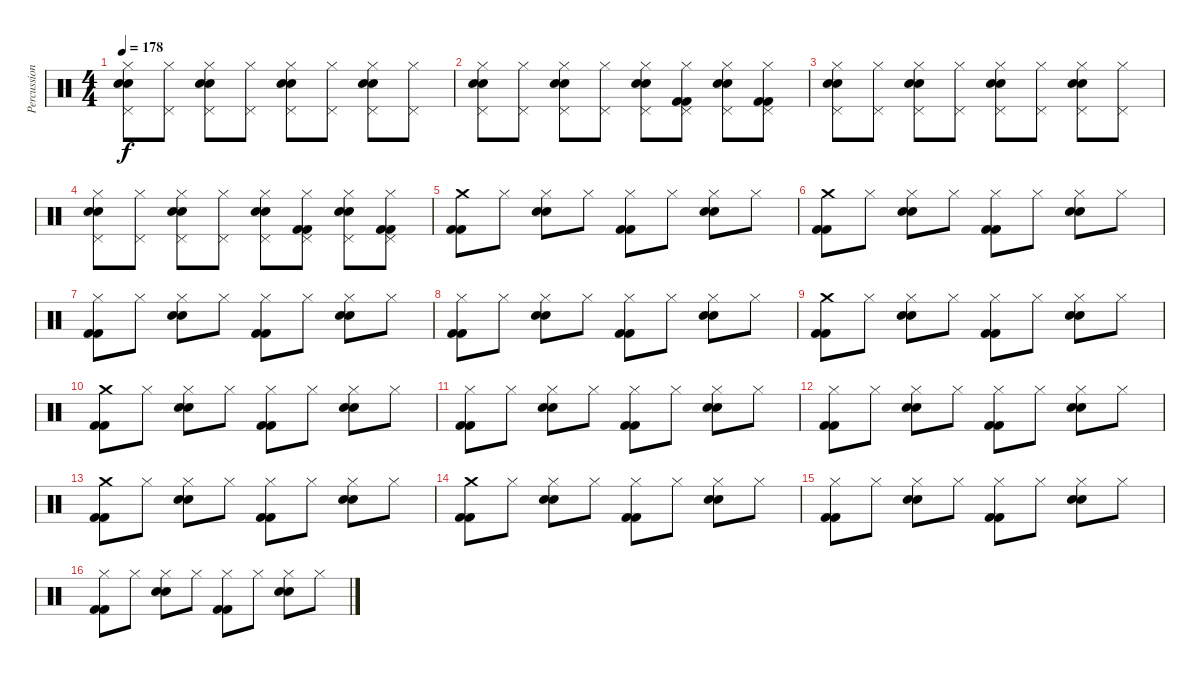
\track ("Percussion" "Percussion") {instrument percussion}
\staff {score}
\articulation defaults
\ts (4 4)
\tempo 178
\clef neutral
\ks c
("Hi-Hat (closed)" "Pedal Hi-Hat (hit)" "Snare (hit) 2" "Snare (hit) 2").8{dy f} ("Hi-Hat (closed)" "Pedal Hi-Hat (hit)").8 ("Hi-Hat (closed)" "Pedal Hi-Hat (hit)" "Snare (hit) 2" "Snare (hit) 2").8 ("Hi-Hat (closed)" "Pedal Hi-Hat (hit)").8 ("Hi-Hat (closed)" "Pedal Hi-Hat (hit)" "Snare (hit) 2" "Snare (hit) 2").8 ("Hi-Hat (closed)" "Pedal Hi-Hat (hit)").8 ("Hi-Hat (closed)" "Pedal Hi-Hat (hit)" "Snare (hit) 2" "Snare (hit) 2").8 ("Hi-Hat (closed)" "Pedal Hi-Hat (hit)").8 |
("Hi-Hat (closed)" "Pedal Hi-Hat (hit)" "Snare (hit) 2" "Snare (hit) 2").8 ("Hi-Hat (closed)" "Pedal Hi-Hat (hit)").8 ("Hi-Hat (closed)" "Pedal Hi-Hat (hit)" "Snare (hit) 2" "Snare (hit) 2").8 ("Hi-Hat (closed)" "Pedal Hi-Hat (hit)").8 ("Hi-Hat (closed)" "Pedal Hi-Hat (hit)" "Snare (hit) 2" "Snare (hit) 2").8 ("Hi-Hat (closed)" "Pedal Hi-Hat (hit)" "Kick (hit) 2" "Kick (hit) 2").8 ("Hi-Hat (closed)" "Pedal Hi-Hat (hit)" "Snare (hit) 2" "Snare (hit) 2").8 ("Hi-Hat (closed)" "Pedal Hi-Hat (hit)" "Kick (hit) 2" "Kick (hit) 2").8 |
("Hi-Hat (closed)" "Pedal Hi-Hat (hit)" "Snare (hit) 2" "Snare (hit) 2").8 ("Hi-Hat (closed)" "Pedal Hi-Hat (hit)").8 ("Hi-Hat (closed)" "Pedal Hi-Hat (hit)" "Snare (hit) 2" "Snare (hit) 2").8 ("Hi-Hat (closed)" "Pedal Hi-Hat (hit)").8 ("Hi-Hat (closed)" "Pedal Hi-Hat (hit)" "Snare (hit) 2" "Snare (hit) 2").8 ("Hi-Hat (closed)" "Pedal Hi-Hat (hit)").8 ("Hi-Hat (closed)" "Pedal Hi-Hat (hit)" "Snare (hit) 2" "Snare (hit) 2").8 ("Hi-Hat (closed)" "Pedal Hi-Hat (hit)").8 |
("Hi-Hat (closed)" "Pedal Hi-Hat (hit)" "Snare (hit) 2" "Snare (hit) 2").8 ("Hi-Hat (closed)" "Pedal Hi-Hat (hit)").8 ("Hi-Hat (closed)" "Pedal Hi-Hat (hit)" "Snare (hit) 2" "Snare (hit) 2").8 ("Hi-Hat (closed)" "Pedal Hi-Hat (hit)").8 ("Hi-Hat (closed)" "Pedal Hi-Hat (hit)" "Snare (hit) 2" "Snare (hit) 2").8 ("Hi-Hat (closed)" "Pedal Hi-Hat (hit)" "Kick (hit) 2" "Kick (hit) 2").8 ("Hi-Hat (closed)" "Pedal Hi-Hat (hit)" "Snare (hit) 2" "Snare (hit) 2").8 ("Hi-Hat (closed)" "Pedal Hi-Hat (hit)" "Kick (hit) 2" "Kick (hit) 2").8 |
("Crash medium (hit)" "Kick (hit) 2" "Kick (hit) 2").8 "Hi-Hat (closed)".8 ("Hi-Hat (closed)" "Snare (hit) 2" "Snare (hit) 2").8 "Hi-Hat (closed)".8 ("Hi-Hat (closed)" "Kick (hit) 2" "Kick (hit) 2").8 "Hi-Hat (closed)".8 ("Hi-Hat (closed)" "Snare (hit) 2" "Snare (hit) 2").8 "Hi-Hat (closed)".8 |
("Crash medium (hit)" "Kick (hit) 2" "Kick (hit) 2").8 "Hi-Hat (closed)".8 ("Hi-Hat (closed)" "Snare (hit) 2" "Snare (hit) 2").8 "Hi-Hat (closed)".8 ("Hi-Hat (closed)" "Kick (hit) 2" "Kick (hit) 2").8 "Hi-Hat (closed)".8 ("Hi-Hat (closed)" "Snare (hit) 2" "Snare (hit) 2").8 "Hi-Hat (closed)".8 |
("Hi-Hat (closed)" "Kick (hit) 2" "Kick (hit) 2").8 "Hi-Hat (closed)".8 ("Hi-Hat (closed)" "Snare (hit) 2" "Snare (hit) 2").8 "Hi-Hat (closed)".8 ("Hi-Hat (closed)" "Kick (hit) 2" "Kick (hit) 2").8 "Hi-Hat (closed)".8 ("Hi-Hat (closed)" "Snare (hit) 2" "Snare (hit) 2").8 "Hi-Hat (closed)".8 |
("Hi-Hat (closed)" "Kick (hit) 2" "Kick (hit) 2").8 "Hi-Hat (closed)".8 ("Hi-Hat (closed)" "Snare (hit) 2" "Snare (hit) 2").8 "Hi-Hat (closed)".8 ("Hi-Hat (closed)" "Kick (hit) 2" "Kick (hit) 2").8 "Hi-Hat (closed)".8 ("Hi-Hat (closed)" "Snare (hit) 2" "Snare (hit) 2").8 "Hi-Hat (closed)".8 |
("Crash medium (hit)" "Kick (hit) 2" "Kick (hit) 2").8 "Hi-Hat (closed)".8 ("Hi-Hat (closed)" "Snare (hit) 2" "Snare (hit) 2").8 "Hi-Hat (closed)".8 ("Hi-Hat (closed)" "Kick (hit) 2" "Kick (hit) 2").8 "Hi-Hat (closed)".8 ("Hi-Hat (closed)" "Snare (hit) 2" "Snare (hit) 2").8 "Hi-Hat (closed)".8 |
("Crash medium (hit)" "Kick (hit) 2" "Kick (hit) 2").8 "Hi-Hat (closed)".8 ("Hi-Hat (closed)" "Snare (hit) 2" "Snare (hit) 2").8 "Hi-Hat (closed)".8 ("Hi-Hat (closed)" "Kick (hit) 2" "Kick (hit) 2").8 "Hi-Hat (closed)".8 ("Hi-Hat (closed)" "Snare (hit) 2" "Snare (hit) 2").8 "Hi-Hat (closed)".8 |
("Hi-Hat (closed)" "Kick (hit) 2" "Kick (hit) 2").8 "Hi-Hat (closed)".8 ("Hi-Hat (closed)" "Snare (hit) 2" "Snare (hit) 2").8 "Hi-Hat (closed)".8 ("Hi-Hat (closed)" "Kick (hit) 2" "Kick (hit) 2").8 "Hi-Hat (closed)".8 ("Hi-Hat (closed)" "Snare (hit) 2" "Snare (hit) 2").8 "Hi-Hat (closed)".8 |
("Hi-Hat (closed)" "Kick (hit) 2" "Kick (hit) 2").8 "Hi-Hat (closed)".8 ("Hi-Hat (closed)" "Snare (hit) 2" "Snare (hit) 2").8 "Hi-Hat (closed)".8 ("Hi-Hat (closed)" "Kick (hit) 2" "Kick (hit) 2").8 "Hi-Hat (closed)".8 ("Hi-Hat (closed)" "Snare (hit) 2" "Snare (hit) 2").8 "Hi-Hat (closed)".8 |
("Crash medium (hit)" "Kick (hit) 2" "Kick (hit) 2").8 "Hi-Hat (closed)".8 ("Hi-Hat (closed)" "Snare (hit) 2" "Snare (hit) 2").8 "Hi-Hat (closed)".8 ("Hi-Hat (closed)" "Kick (hit) 2" "Kick (hit) 2").8 "Hi-Hat (closed)".8 ("Hi-Hat (closed)" "Snare (hit) 2" "Snare (hit) 2").8 "Hi-Hat (closed)".8 |
("Crash medium (hit)" "Kick (hit) 2" "Kick (hit) 2").8 "Hi-Hat (closed)".8 ("Hi-Hat (closed)" "Snare (hit) 2" "Snare (hit) 2").8 "Hi-Hat (closed)".8 ("Hi-Hat (closed)" "Kick (hit) 2" "Kick (hit) 2").8 "Hi-Hat (closed)".8 ("Hi-Hat (closed)" "Snare (hit) 2" "Snare (hit) 2").8 "Hi-Hat (closed)".8 |
("Hi-Hat (closed)" "Kick (hit) 2" "Kick (hit) 2").8 "Hi-Hat (closed)".8 ("Hi-Hat (closed)" "Snare (hit) 2" "Snare (hit) 2").8 "Hi-Hat (closed)".8 ("Hi-Hat (closed)" "Kick (hit) 2" "Kick (hit) 2").8 "Hi-Hat (closed)".8 ("Hi-Hat (closed)" "Snare (hit) 2" "Snare (hit) 2").8 "Hi-Hat (closed)".8 |
("Hi-Hat (closed)" "Kick (hit) 2" "Kick (hit) 2").8 "Hi-Hat (closed)".8 ("Hi-Hat (closed)" "Snare (hit) 2" "Snare (hit) 2").8 "Hi-Hat (closed)".8 ("Hi-Hat (closed)" "Kick (hit) 2" "Kick (hit) 2").8 "Hi-Hat (closed)".8 ("Hi-Hat (closed)" "Snare (hit) 2" "Snare (hit) 2").8 "Hi-Hat (closed)".8
